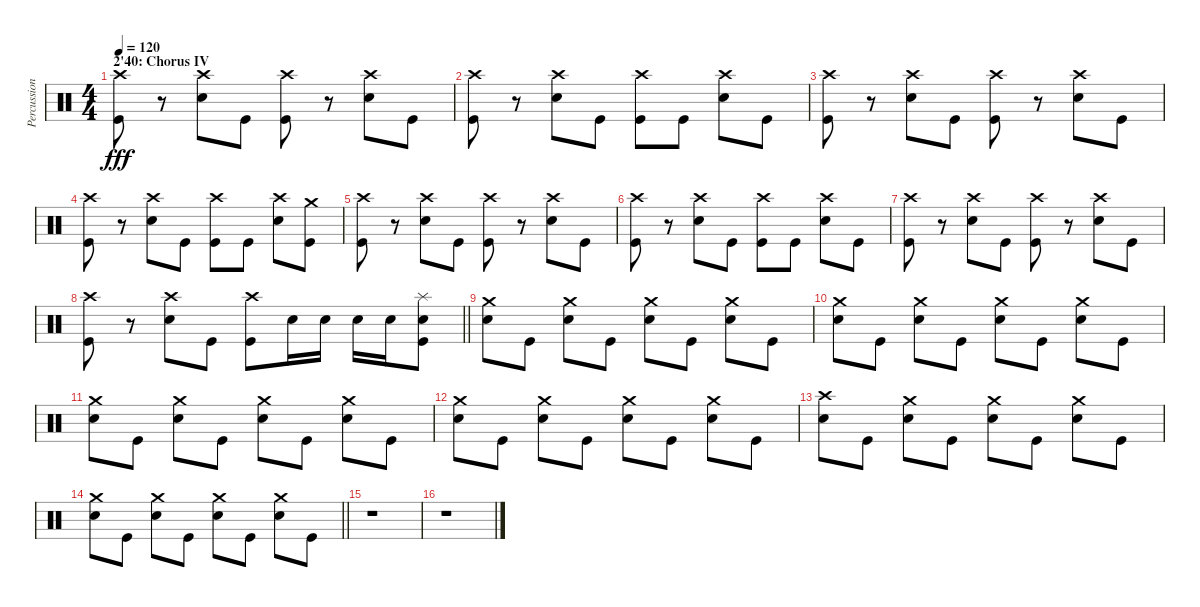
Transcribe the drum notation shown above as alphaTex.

\track ("Percussions" "Percussion") {instrument percussion}
\staff {score}
\articulation defaults
\ts (4 4)
\section ("" "2'40: Chorus IV")
\tempo 120
\clef neutral
\ks c
("Crash high (hit)" "Kick (hit)").8{dy fff} r.8 ("Crash high (hit)" "Snare (hit) 2").8 "Kick (hit)".8 ("Crash high (hit)" "Kick (hit)").8 r.8 ("Crash high (hit)" "Snare (hit) 2").8 "Kick (hit)".8 |
("Crash high (hit)" "Kick (hit)").8 r.8 ("Crash high (hit)" "Snare (hit) 2").8 "Kick (hit)".8 ("Crash high (hit)" "Kick (hit)").8 "Kick (hit)".8 ("Crash high (hit)" "Snare (hit) 2").8 "Kick (hit)".8 |
("Crash high (hit)" "Kick (hit)").8 r.8 ("Crash high (hit)" "Snare (hit) 2").8 "Kick (hit)".8 ("Crash high (hit)" "Kick (hit)").8 r.8 ("Crash high (hit)" "Snare (hit) 2").8 "Kick (hit)".8 |
("Crash high (hit)" "Kick (hit)").8 r.8 ("Crash high (hit)" "Snare (hit) 2").8 "Kick (hit)".8 ("Crash high (hit)" "Kick (hit)").8 "Kick (hit)".8 ("Crash high (hit)" "Snare (hit) 2").8 ("Crash medium (hit)" "Kick (hit)").8 |
("Crash high (hit)" "Kick (hit)").8 r.8 ("Crash high (hit)" "Snare (hit) 2").8 "Kick (hit)".8 ("Crash high (hit)" "Kick (hit)").8 r.8 ("Crash high (hit)" "Snare (hit) 2").8 "Kick (hit)".8 |
("Crash high (hit)" "Kick (hit)").8 r.8 ("Crash high (hit)" "Snare (hit) 2").8 "Kick (hit)".8 ("Crash high (hit)" "Kick (hit)").8 "Kick (hit)".8 ("Crash high (hit)" "Snare (hit) 2").8 "Kick (hit)".8 |
("Crash high (hit)" "Kick (hit)").8 r.8 ("Crash high (hit)" "Snare (hit) 2").8 "Kick (hit)".8 ("Crash high (hit)" "Kick (hit)").8 r.8 ("Crash high (hit)" "Snare (hit) 2").8 "Kick (hit)".8 |
\barLineRight lightlight
("Crash high (hit)" "Kick (hit)").8 r.8 ("Crash high (hit)" "Snare (hit) 2").8 "Kick (hit)".8 ("Crash high (hit)" "Kick (hit)").8 "Snare (hit) 2".16 "Snare (hit) 2".16 "Snare (hit) 2".16 "Snare (hit) 2".16 ("Splash (hit)" "Snare (hit) 2" "Kick (hit)").8 |
("Crash medium (hit)" "Snare (hit) 2").8 "Kick (hit)".8 ("Crash medium (hit)" "Snare (hit) 2").8 "Kick (hit)".8 ("Crash medium (hit)" "Snare (hit) 2").8 "Kick (hit)".8 ("Crash medium (hit)" "Snare (hit) 2").8 "Kick (hit)".8 |
("Crash medium (hit)" "Snare (hit) 2").8 "Kick (hit)".8 ("Crash medium (hit)" "Snare (hit) 2").8 "Kick (hit)".8 ("Crash medium (hit)" "Snare (hit) 2").8 "Kick (hit)".8 ("Crash medium (hit)" "Snare (hit) 2").8 "Kick (hit)".8 |
("Crash medium (hit)" "Snare (hit) 2").8 "Kick (hit)".8 ("Crash medium (hit)" "Snare (hit) 2").8 "Kick (hit)".8 ("Crash medium (hit)" "Snare (hit) 2").8 "Kick (hit)".8 ("Crash medium (hit)" "Snare (hit) 2").8 "Kick (hit)".8 |
("Crash medium (hit)" "Snare (hit) 2").8 "Kick (hit)".8 ("Crash medium (hit)" "Snare (hit) 2").8 "Kick (hit)".8 ("Crash medium (hit)" "Snare (hit) 2").8 "Kick (hit)".8 ("Crash medium (hit)" "Snare (hit) 2").8 "Kick (hit)".8 |
("Crash high (hit)" "Snare (hit) 2").8 "Kick (hit)".8 ("Crash medium (hit)" "Snare (hit) 2").8 "Kick (hit)".8 ("Crash medium (hit)" "Snare (hit) 2").8 "Kick (hit)".8 ("Crash medium (hit)" "Snare (hit) 2").8 "Kick (hit)".8 |
\barLineRight lightlight
("Crash medium (hit)" "Snare (hit) 2").8 "Kick (hit)".8 ("Crash medium (hit)" "Snare (hit) 2").8 "Kick (hit)".8 ("Crash medium (hit)" "Snare (hit) 2").8 "Kick (hit)".8 ("Crash medium (hit)" "Snare (hit) 2").8 "Kick (hit)".8 |
r.1 |
r.1
